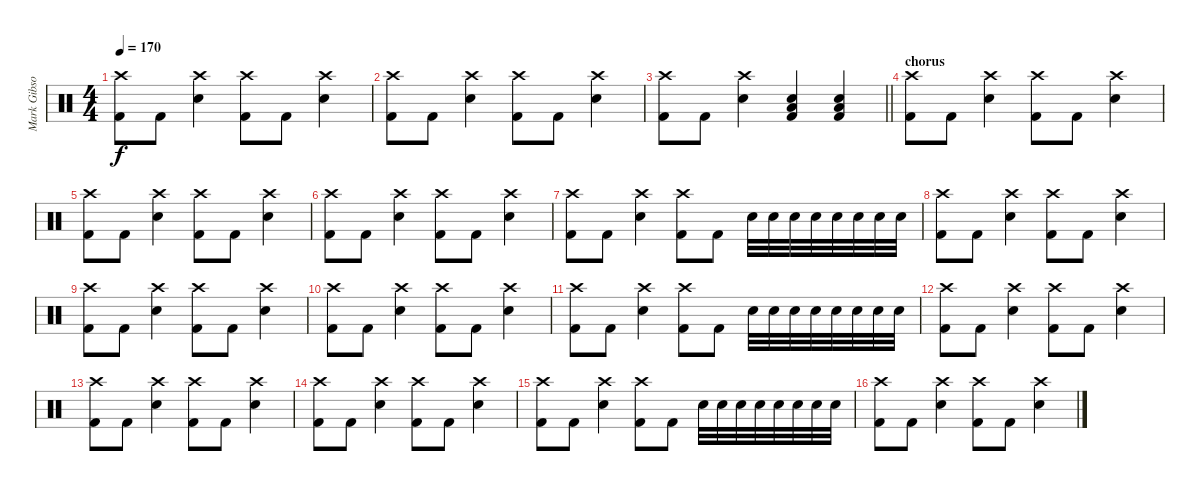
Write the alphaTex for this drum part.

\track ("Mark Gibson" "Mark Gibso") {instrument percussion}
\staff {score}
\articulation defaults
\ts (4 4)
\tempo 170
\clef neutral
\ks c
("Crash high (hit)" "Kick (hit) 2").8{dy f} "Kick (hit) 2".8 ("Crash high (hit)" "Electric Snare (hit)").4 ("Crash high (hit)" "Kick (hit) 2").8 "Kick (hit) 2".8 ("Crash high (hit)" "Electric Snare (hit)").4 |
("Crash high (hit)" "Kick (hit) 2").8 "Kick (hit) 2".8 ("Crash high (hit)" "Electric Snare (hit)").4 ("Crash high (hit)" "Kick (hit) 2").8 "Kick (hit) 2".8 ("Crash high (hit)" "Electric Snare (hit)").4 |
\barLineRight lightlight
("Crash high (hit)" "Kick (hit) 2").8 "Kick (hit) 2".8 ("Crash high (hit)" "Electric Snare (hit)").4 ("Electric Snare (hit)" "Low Floor Tom (hit)" "Kick (hit) 2").4 ("Electric Snare (hit)" "Low Floor Tom (hit)" "Kick (hit) 2").4 |
\section ("" "chorus")
("Crash high (hit)" "Kick (hit) 2").8 "Kick (hit) 2".8 ("Crash high (hit)" "Electric Snare (hit)").4 ("Crash high (hit)" "Kick (hit) 2").8 "Kick (hit) 2".8 ("Crash high (hit)" "Electric Snare (hit)").4 |
("Crash high (hit)" "Kick (hit) 2").8 "Kick (hit) 2".8 ("Crash high (hit)" "Electric Snare (hit)").4 ("Crash high (hit)" "Kick (hit) 2").8 "Kick (hit) 2".8 ("Crash high (hit)" "Electric Snare (hit)").4 |
("Crash high (hit)" "Kick (hit) 2").8 "Kick (hit) 2".8 ("Crash high (hit)" "Electric Snare (hit)").4 ("Crash high (hit)" "Kick (hit) 2").8 "Kick (hit) 2".8 ("Crash high (hit)" "Electric Snare (hit)").4 |
("Crash high (hit)" "Kick (hit) 2").8 "Kick (hit) 2".8 ("Crash high (hit)" "Electric Snare (hit)").4 ("Crash high (hit)" "Kick (hit) 2").8 "Kick (hit) 2".8 "Electric Snare (hit)".32 "Electric Snare (hit)".32 "Electric Snare (hit)".32 "Electric Snare (hit)".32 "Electric Snare (hit)".32 "Electric Snare (hit)".32 "Electric Snare (hit)".32 "Electric Snare (hit)".32 |
("Crash high (hit)" "Kick (hit) 2").8 "Kick (hit) 2".8 ("Crash high (hit)" "Electric Snare (hit)").4 ("Crash high (hit)" "Kick (hit) 2").8 "Kick (hit) 2".8 ("Crash high (hit)" "Electric Snare (hit)").4 |
("Crash high (hit)" "Kick (hit) 2").8 "Kick (hit) 2".8 ("Crash high (hit)" "Electric Snare (hit)").4 ("Crash high (hit)" "Kick (hit) 2").8 "Kick (hit) 2".8 ("Crash high (hit)" "Electric Snare (hit)").4 |
("Crash high (hit)" "Kick (hit) 2").8 "Kick (hit) 2".8 ("Crash high (hit)" "Electric Snare (hit)").4 ("Crash high (hit)" "Kick (hit) 2").8 "Kick (hit) 2".8 ("Crash high (hit)" "Electric Snare (hit)").4 |
("Crash high (hit)" "Kick (hit) 2").8 "Kick (hit) 2".8 ("Crash high (hit)" "Electric Snare (hit)").4 ("Crash high (hit)" "Kick (hit) 2").8 "Kick (hit) 2".8 "Electric Snare (hit)".32 "Electric Snare (hit)".32 "Electric Snare (hit)".32 "Electric Snare (hit)".32 "Electric Snare (hit)".32 "Electric Snare (hit)".32 "Electric Snare (hit)".32 "Electric Snare (hit)".32 |
("Crash high (hit)" "Kick (hit) 2").8 "Kick (hit) 2".8 ("Crash high (hit)" "Electric Snare (hit)").4 ("Crash high (hit)" "Kick (hit) 2").8 "Kick (hit) 2".8 ("Crash high (hit)" "Electric Snare (hit)").4 |
("Crash high (hit)" "Kick (hit) 2").8 "Kick (hit) 2".8 ("Crash high (hit)" "Electric Snare (hit)").4 ("Crash high (hit)" "Kick (hit) 2").8 "Kick (hit) 2".8 ("Crash high (hit)" "Electric Snare (hit)").4 |
("Crash high (hit)" "Kick (hit) 2").8 "Kick (hit) 2".8 ("Crash high (hit)" "Electric Snare (hit)").4 ("Crash high (hit)" "Kick (hit) 2").8 "Kick (hit) 2".8 ("Crash high (hit)" "Electric Snare (hit)").4 |
("Crash high (hit)" "Kick (hit) 2").8 "Kick (hit) 2".8 ("Crash high (hit)" "Electric Snare (hit)").4 ("Crash high (hit)" "Kick (hit) 2").8 "Kick (hit) 2".8 "Electric Snare (hit)".32 "Electric Snare (hit)".32 "Electric Snare (hit)".32 "Electric Snare (hit)".32 "Electric Snare (hit)".32 "Electric Snare (hit)".32 "Electric Snare (hit)".32 "Electric Snare (hit)".32 |
("Crash high (hit)" "Kick (hit) 2").8 "Kick (hit) 2".8 ("Crash high (hit)" "Electric Snare (hit)").4 ("Crash high (hit)" "Kick (hit) 2").8 "Kick (hit) 2".8 ("Crash high (hit)" "Electric Snare (hit)").4
